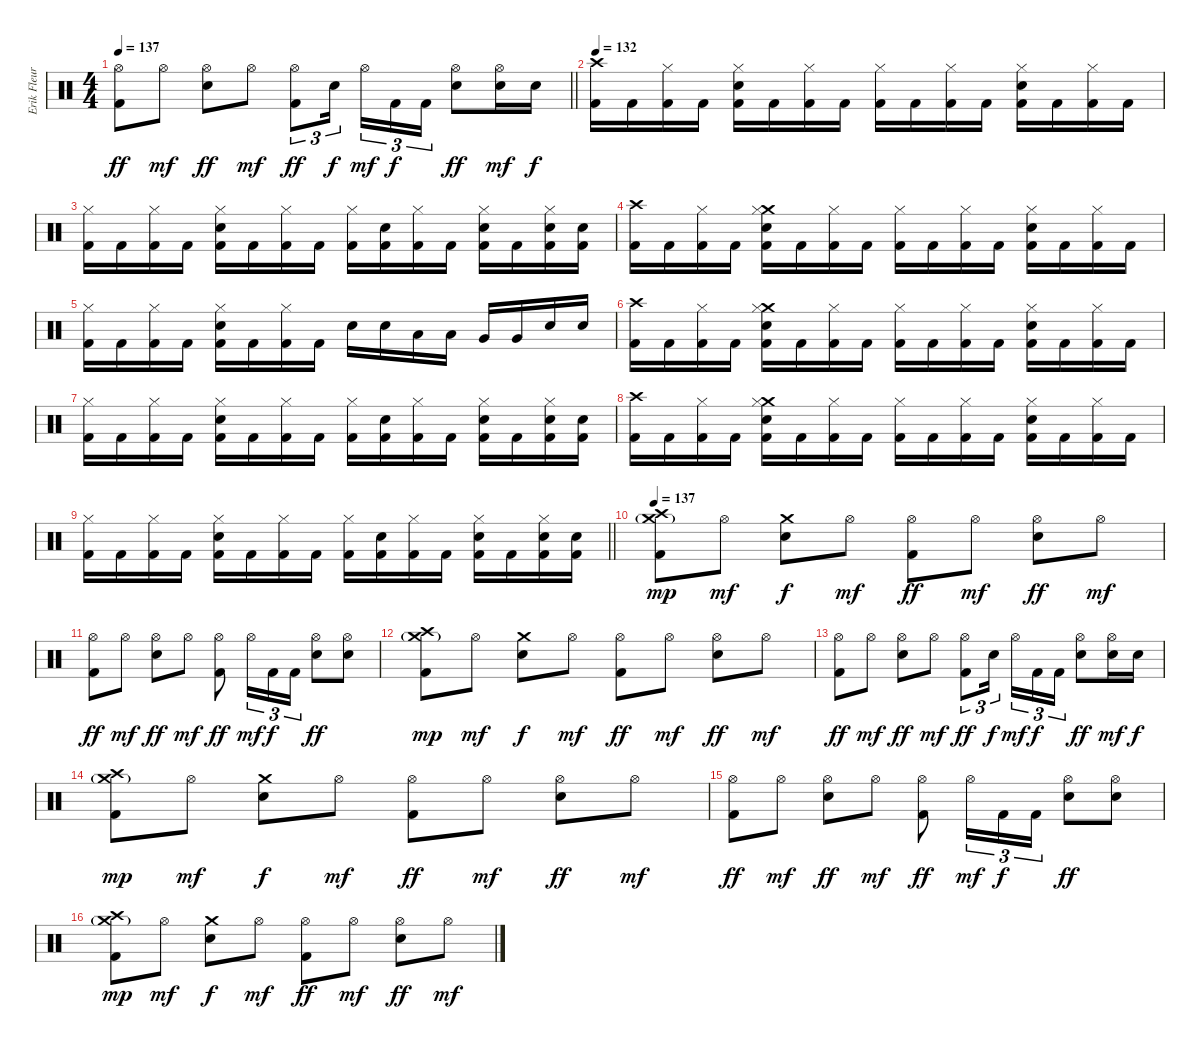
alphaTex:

\track ("Erik Fleuren" "Erik Fleur") {instrument percussion}
\staff {score}
\articulation defaults
\ts (4 4)
\tempo 137
\clef neutral
\barLineRight lightlight
\ks c
("Hi-Hat (open)" "Kick (hit) 2").8{dy ff} "Hi-Hat (open)".8{dy mf} ("Hi-Hat (open)" "Electric Snare (hit)").8{dy ff} "Hi-Hat (open)".8{dy mf} ("Hi-Hat (open)" "Kick (hit) 2").8{tu (3 2) dy ff} "Electric Snare (hit)".16{tu (3 2) dy f beam splitsecondary} "Hi-Hat (open)".16{tu (3 2) dy mf} "Kick (hit) 2".16{tu (3 2) dy f} "Kick (hit) 2".16{tu (3 2)} ("Hi-Hat (open)" "Electric Snare (hit)").8{dy ff} ("Hi-Hat (open)" "Electric Snare (hit)").16{dy mf} "Electric Snare (hit)".16{dy f} |
\tempo 132
("Crash high (hit)" "Kick (hit) 2").16 "Kick (hit) 2".16 ("Hi-Hat (closed)" "Kick (hit) 2").16 "Kick (hit) 2".16 ("Hi-Hat (closed)" "Electric Snare (hit)" "Kick (hit) 2").16 "Kick (hit) 2".16 ("Hi-Hat (closed)" "Kick (hit) 2").16 "Kick (hit) 2".16 ("Hi-Hat (closed)" "Kick (hit) 2").16 "Kick (hit) 2".16 ("Hi-Hat (closed)" "Kick (hit) 2").16 "Kick (hit) 2".16 ("Hi-Hat (closed)" "Electric Snare (hit)" "Kick (hit) 2").16 "Kick (hit) 2".16 ("Hi-Hat (closed)" "Kick (hit) 2").16 "Kick (hit) 2".16 |
("Hi-Hat (closed)" "Kick (hit) 2").16 "Kick (hit) 2".16 ("Hi-Hat (closed)" "Kick (hit) 2").16 "Kick (hit) 2".16 ("Hi-Hat (closed)" "Electric Snare (hit)" "Kick (hit) 2").16 "Kick (hit) 2".16 ("Hi-Hat (closed)" "Kick (hit) 2").16 "Kick (hit) 2".16 ("Hi-Hat (closed)" "Kick (hit) 2").16 ("Electric Snare (hit)" "Kick (hit) 2").16 ("Hi-Hat (closed)" "Kick (hit) 2").16 "Kick (hit) 2".16 ("Hi-Hat (closed)" "Electric Snare (hit)" "Kick (hit) 2").16 "Kick (hit) 2".16 ("Hi-Hat (closed)" "Electric Snare (hit)" "Kick (hit) 2").16 ("Electric Snare (hit)" "Kick (hit) 2").16 |
("Crash high (hit)" "Kick (hit) 2").16 "Kick (hit) 2".16 ("Hi-Hat (closed)" "Kick (hit) 2").16 "Kick (hit) 2".16 ("Crash medium (hit)" "Hi-Hat (closed)" "Electric Snare (hit)" "Kick (hit) 2").16 "Kick (hit) 2".16 ("Hi-Hat (closed)" "Kick (hit) 2").16 "Kick (hit) 2".16 ("Hi-Hat (closed)" "Kick (hit) 2").16 "Kick (hit) 2".16 ("Hi-Hat (closed)" "Kick (hit) 2").16 "Kick (hit) 2".16 ("Hi-Hat (closed)" "Electric Snare (hit)" "Kick (hit) 2").16 "Kick (hit) 2".16 ("Hi-Hat (closed)" "Kick (hit) 2").16 "Kick (hit) 2".16 |
("Hi-Hat (closed)" "Kick (hit) 2").16 "Kick (hit) 2".16 ("Hi-Hat (closed)" "Kick (hit) 2").16 "Kick (hit) 2".16 ("Hi-Hat (closed)" "Electric Snare (hit)" "Kick (hit) 2").16 "Kick (hit) 2".16 ("Hi-Hat (closed)" "Kick (hit) 2").16 "Kick (hit) 2".16 "Electric Snare (hit)".16 "Electric Snare (hit)".16 "Low Tom (hit)".16 "Low Tom (hit)".16 "Very Low Tom (hit)".16 "Very Low Tom (hit)".16 "Electric Snare (hit)".16 "Electric Snare (hit)".16 |
("Crash high (hit)" "Kick (hit) 2").16 "Kick (hit) 2".16 ("Hi-Hat (closed)" "Kick (hit) 2").16 "Kick (hit) 2".16 ("Crash medium (hit)" "Hi-Hat (closed)" "Electric Snare (hit)" "Kick (hit) 2").16 "Kick (hit) 2".16 ("Hi-Hat (closed)" "Kick (hit) 2").16 "Kick (hit) 2".16 ("Hi-Hat (closed)" "Kick (hit) 2").16 "Kick (hit) 2".16 ("Hi-Hat (closed)" "Kick (hit) 2").16 "Kick (hit) 2".16 ("Hi-Hat (closed)" "Electric Snare (hit)" "Kick (hit) 2").16 "Kick (hit) 2".16 ("Hi-Hat (closed)" "Kick (hit) 2").16 "Kick (hit) 2".16 |
("Hi-Hat (closed)" "Kick (hit) 2").16 "Kick (hit) 2".16 ("Hi-Hat (closed)" "Kick (hit) 2").16 "Kick (hit) 2".16 ("Hi-Hat (closed)" "Electric Snare (hit)" "Kick (hit) 2").16 "Kick (hit) 2".16 ("Hi-Hat (closed)" "Kick (hit) 2").16 "Kick (hit) 2".16 ("Hi-Hat (closed)" "Kick (hit) 2").16 ("Electric Snare (hit)" "Kick (hit) 2").16 ("Hi-Hat (closed)" "Kick (hit) 2").16 "Kick (hit) 2".16 ("Hi-Hat (closed)" "Electric Snare (hit)" "Kick (hit) 2").16 "Kick (hit) 2".16 ("Hi-Hat (closed)" "Electric Snare (hit)" "Kick (hit) 2").16 ("Electric Snare (hit)" "Kick (hit) 2").16 |
("Crash high (hit)" "Kick (hit) 2").16 "Kick (hit) 2".16 ("Hi-Hat (closed)" "Kick (hit) 2").16 "Kick (hit) 2".16 ("Crash medium (hit)" "Hi-Hat (closed)" "Electric Snare (hit)" "Kick (hit) 2").16 "Kick (hit) 2".16 ("Hi-Hat (closed)" "Kick (hit) 2").16 "Kick (hit) 2".16 ("Hi-Hat (closed)" "Kick (hit) 2").16 "Kick (hit) 2".16 ("Hi-Hat (closed)" "Kick (hit) 2").16 "Kick (hit) 2".16 ("Hi-Hat (closed)" "Electric Snare (hit)" "Kick (hit) 2").16 "Kick (hit) 2".16 ("Hi-Hat (closed)" "Kick (hit) 2").16 "Kick (hit) 2".16 |
\barLineRight lightlight
("Hi-Hat (closed)" "Kick (hit) 2").16 "Kick (hit) 2".16 ("Hi-Hat (closed)" "Kick (hit) 2").16 "Kick (hit) 2".16 ("Hi-Hat (closed)" "Electric Snare (hit)" "Kick (hit) 2").16 "Kick (hit) 2".16 ("Hi-Hat (closed)" "Kick (hit) 2").16 "Kick (hit) 2".16 ("Hi-Hat (closed)" "Kick (hit) 2").16 ("Electric Snare (hit)" "Kick (hit) 2").16 ("Hi-Hat (closed)" "Kick (hit) 2").16 "Kick (hit) 2".16 ("Hi-Hat (closed)" "Electric Snare (hit)" "Kick (hit) 2").16 "Kick (hit) 2".16 ("Hi-Hat (closed)" "Electric Snare (hit)" "Kick (hit) 2").16 ("Electric Snare (hit)" "Kick (hit) 2").16 |
\tempo 137
("Crash high (hit)" "Crash medium (hit)"{g} "Kick (hit) 2").8{dy mp} "Hi-Hat (open)".8{dy mf} ("Crash medium (hit)" "Electric Snare (hit)").8{dy f} "Hi-Hat (open)".8{dy mf} ("Hi-Hat (open)" "Kick (hit) 2").8{dy ff} "Hi-Hat (open)".8{dy mf} ("Hi-Hat (open)" "Electric Snare (hit)").8{dy ff} "Hi-Hat (open)".8{dy mf} |
("Hi-Hat (open)" "Kick (hit) 2").8{dy ff} "Hi-Hat (open)".8{dy mf} ("Hi-Hat (open)" "Electric Snare (hit)").8{dy ff} "Hi-Hat (open)".8{dy mf} ("Hi-Hat (open)" "Kick (hit) 2").8{dy ff} "Hi-Hat (open)".16{tu (3 2) dy mf} "Kick (hit) 2".16{tu (3 2) dy f} "Kick (hit) 2".16{tu (3 2)} ("Hi-Hat (open)" "Electric Snare (hit)").8{dy ff} ("Hi-Hat (open)" "Electric Snare (hit)").8 |
("Crash high (hit)" "Crash medium (hit)"{g} "Kick (hit) 2").8{dy mp} "Hi-Hat (open)".8{dy mf} ("Crash medium (hit)" "Electric Snare (hit)").8{dy f} "Hi-Hat (open)".8{dy mf} ("Hi-Hat (open)" "Kick (hit) 2").8{dy ff} "Hi-Hat (open)".8{dy mf} ("Hi-Hat (open)" "Electric Snare (hit)").8{dy ff} "Hi-Hat (open)".8{dy mf} |
("Hi-Hat (open)" "Kick (hit) 2").8{dy ff} "Hi-Hat (open)".8{dy mf} ("Hi-Hat (open)" "Electric Snare (hit)").8{dy ff} "Hi-Hat (open)".8{dy mf} ("Hi-Hat (open)" "Kick (hit) 2").8{tu (3 2) dy ff} "Electric Snare (hit)".16{tu (3 2) dy f beam splitsecondary} "Hi-Hat (open)".16{tu (3 2) dy mf} "Kick (hit) 2".16{tu (3 2) dy f} "Kick (hit) 2".16{tu (3 2)} ("Hi-Hat (open)" "Electric Snare (hit)").8{dy ff} ("Hi-Hat (open)" "Electric Snare (hit)").16{dy mf} "Electric Snare (hit)".16{dy f} |
("Crash high (hit)" "Crash medium (hit)"{g} "Kick (hit) 2").8{dy mp} "Hi-Hat (open)".8{dy mf} ("Crash medium (hit)" "Electric Snare (hit)").8{dy f} "Hi-Hat (open)".8{dy mf} ("Hi-Hat (open)" "Kick (hit) 2").8{dy ff} "Hi-Hat (open)".8{dy mf} ("Hi-Hat (open)" "Electric Snare (hit)").8{dy ff} "Hi-Hat (open)".8{dy mf} |
("Hi-Hat (open)" "Kick (hit) 2").8{dy ff} "Hi-Hat (open)".8{dy mf} ("Hi-Hat (open)" "Electric Snare (hit)").8{dy ff} "Hi-Hat (open)".8{dy mf} ("Hi-Hat (open)" "Kick (hit) 2").8{dy ff} "Hi-Hat (open)".16{tu (3 2) dy mf} "Kick (hit) 2".16{tu (3 2) dy f} "Kick (hit) 2".16{tu (3 2)} ("Hi-Hat (open)" "Electric Snare (hit)").8{dy ff} ("Hi-Hat (open)" "Electric Snare (hit)").8 |
("Crash high (hit)" "Crash medium (hit)"{g} "Kick (hit) 2").8{dy mp} "Hi-Hat (open)".8{dy mf} ("Crash medium (hit)" "Electric Snare (hit)").8{dy f} "Hi-Hat (open)".8{dy mf} ("Hi-Hat (open)" "Kick (hit) 2").8{dy ff} "Hi-Hat (open)".8{dy mf} ("Hi-Hat (open)" "Electric Snare (hit)").8{dy ff} "Hi-Hat (open)".8{dy mf}
